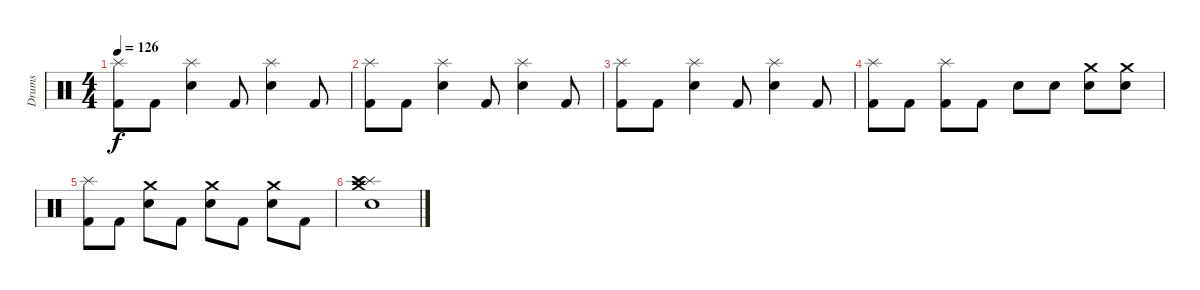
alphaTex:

\track ("Drums" "Drums") {instrument percussion}
\staff {score}
\articulation defaults
\ts (4 4)
\tempo 126
\clef neutral
\ks c
("Splash (hit)" "Kick (hit) 2").8{dy f} "Kick (hit) 2".8 ("Splash (hit)" "Snare (hit) 2").4 "Kick (hit) 2".8 ("Splash (hit)" "Snare (hit) 2").4 "Kick (hit) 2".8 |
("Splash (hit)" "Kick (hit) 2").8 "Kick (hit) 2".8 ("Splash (hit)" "Snare (hit) 2").4 "Kick (hit) 2".8 ("Splash (hit)" "Snare (hit) 2").4 "Kick (hit) 2".8 |
("Splash (hit)" "Kick (hit) 2").8 "Kick (hit) 2".8 ("Splash (hit)" "Snare (hit) 2").4 "Kick (hit) 2".8 ("Splash (hit)" "Snare (hit) 2").4 "Kick (hit) 2".8 |
("Splash (hit)" "Kick (hit) 2").8 "Kick (hit) 2".8 ("Splash (hit)" "Kick (hit) 2").8 "Kick (hit) 2".8 "Snare (hit) 2".8 "Snare (hit) 2".8 ("Crash medium (hit)" "Snare (hit) 2").8 ("Crash medium (hit)" "Snare (hit) 2").8 |
("Kick (hit) 2" "Splash (hit)").8 "Kick (hit) 2".8 ("Snare (hit) 2" "Crash medium (hit)").8 "Kick (hit) 2".8 ("Snare (hit) 2" "Crash medium (hit)").8 "Kick (hit) 2".8 ("Snare (hit) 2" "Crash medium (hit)").8 "Kick (hit) 2".8 |
("Snare (hit) 2" "Crash medium (hit)" "Splash (hit)" "Crash high (hit)").1
